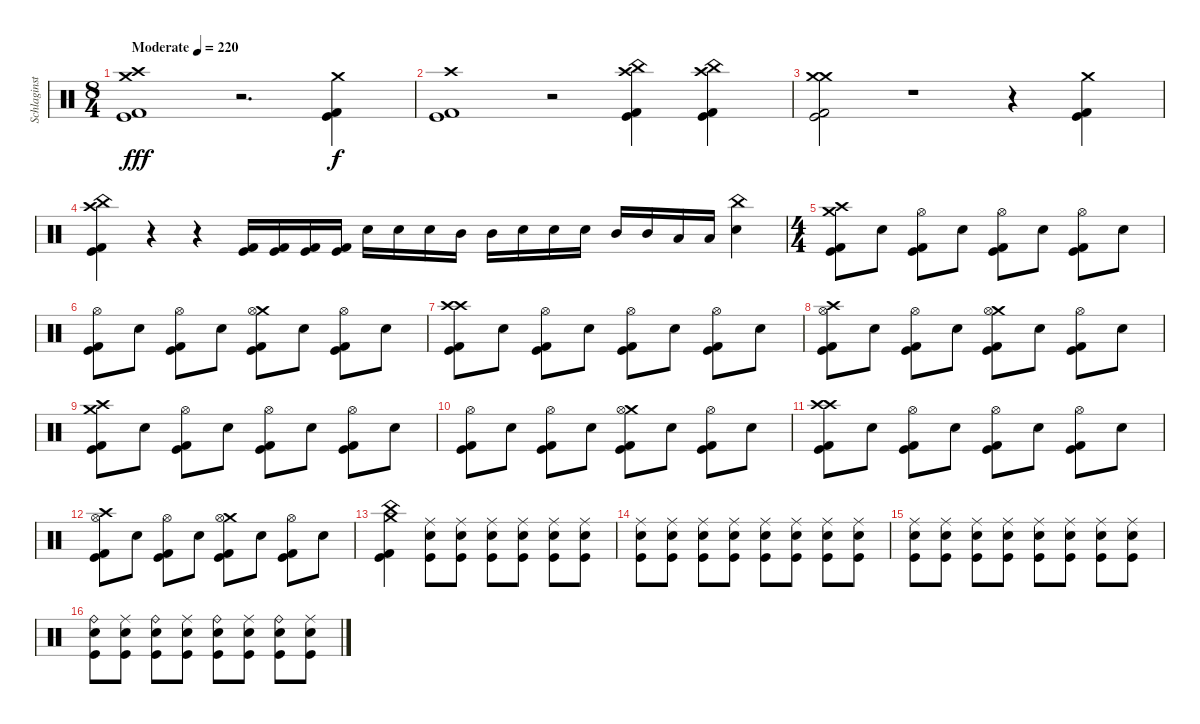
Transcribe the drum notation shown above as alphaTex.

\track ("Schlaginstrumente - Auswahl" "Schlaginst") {instrument percussion}
\staff {score}
\articulation defaults
\ts (8 4)
\tempo (220 "Moderate")
\clef neutral
\ks c
("Crash medium (hit)" "Crash high (hit)" "Kick (hit) 2" "Kick (hit)").1{dy fff} r.2{d} ("Crash medium (hit)" "Kick (hit) 2" "Kick (hit)").4{dy f} |
("Crash high (hit)" "Kick (hit) 2" "Kick (hit)").1 r.2 ("Crash high (hit)" "China (hit)" "Kick (hit) 2" "Kick (hit)").4 ("Crash high (hit)" "China (hit)" "Kick (hit) 2" "Kick (hit)").4 |
("Crash medium (hit)" "Crash medium (hit)" "Kick (hit) 2" "Kick (hit)").2 r.1 r.4 ("Crash medium (hit)" "Kick (hit) 2" "Kick (hit)").4 |
("Crash high (hit)" "China (hit)" "Kick (hit) 2" "Kick (hit)").4 r.4 r.4 ("Kick (hit) 2" "Kick (hit)").16 ("Kick (hit) 2" "Kick (hit)").16 ("Kick (hit) 2" "Kick (hit)").16 ("Kick (hit) 2" "Kick (hit)").16 "Electric Snare (hit)".16 "Electric Snare (hit)".16 "Electric Snare (hit)".16 "Mid Tom (hit)".16 "Mid Tom (hit)".16 "Electric Snare (hit)".16 "Electric Snare (hit)".16 "Electric Snare (hit)".16 "Mid Tom (hit)".16 "Mid Tom (hit)".16 "Low Tom (hit)".16 "Low Tom (hit)".16 ("China (hit)" "Electric Snare (hit)").4 |
\ts (4 4)
("Crash medium (hit)" "Crash high (hit)" "Kick (hit) 2" "Kick (hit)").8 "Electric Snare (hit)".8 ("Hi-Hat (open)" "Kick (hit) 2" "Kick (hit)").8 "Electric Snare (hit)".8 ("Hi-Hat (open)" "Kick (hit) 2" "Kick (hit)").8 "Electric Snare (hit)".8 ("Hi-Hat (open)" "Kick (hit) 2" "Kick (hit)").8 "Electric Snare (hit)".8 |
("Hi-Hat (open)" "Kick (hit) 2" "Kick (hit)").8 "Electric Snare (hit)".8 ("Hi-Hat (open)" "Kick (hit) 2" "Kick (hit)").8 "Electric Snare (hit)".8 ("Crash medium (hit)" "Hi-Hat (open)" "Kick (hit) 2" "Kick (hit)").8 "Electric Snare (hit)".8 ("Hi-Hat (open)" "Kick (hit) 2" "Kick (hit)").8 "Electric Snare (hit)".8 |
("Crash high (hit)" "Crash high (hit)" "Kick (hit) 2" "Kick (hit)").8 "Electric Snare (hit)".8 ("Hi-Hat (open)" "Kick (hit) 2" "Kick (hit)").8 "Electric Snare (hit)".8 ("Hi-Hat (open)" "Kick (hit) 2" "Kick (hit)").8 "Electric Snare (hit)".8 ("Hi-Hat (open)" "Kick (hit) 2" "Kick (hit)").8 "Electric Snare (hit)".8 |
("Crash high (hit)" "Hi-Hat (open)" "Kick (hit) 2" "Kick (hit)").8 "Electric Snare (hit)".8 ("Hi-Hat (open)" "Kick (hit) 2" "Kick (hit)").8 "Electric Snare (hit)".8 ("Crash medium (hit)" "Hi-Hat (open)" "Kick (hit) 2" "Kick (hit)").8 "Electric Snare (hit)".8 ("Hi-Hat (open)" "Kick (hit) 2" "Kick (hit)").8 "Electric Snare (hit)".8 |
("Crash medium (hit)" "Crash high (hit)" "Kick (hit) 2" "Kick (hit)").8 "Electric Snare (hit)".8 ("Hi-Hat (open)" "Kick (hit) 2" "Kick (hit)").8 "Electric Snare (hit)".8 ("Hi-Hat (open)" "Kick (hit) 2" "Kick (hit)").8 "Electric Snare (hit)".8 ("Hi-Hat (open)" "Kick (hit) 2" "Kick (hit)").8 "Electric Snare (hit)".8 |
("Hi-Hat (open)" "Kick (hit) 2" "Kick (hit)").8 "Electric Snare (hit)".8 ("Hi-Hat (open)" "Kick (hit) 2" "Kick (hit)").8 "Electric Snare (hit)".8 ("Crash medium (hit)" "Hi-Hat (open)" "Kick (hit) 2" "Kick (hit)").8 "Electric Snare (hit)".8 ("Hi-Hat (open)" "Kick (hit) 2" "Kick (hit)").8 "Electric Snare (hit)".8 |
("Crash high (hit)" "Crash high (hit)" "Kick (hit) 2" "Kick (hit)").8 "Electric Snare (hit)".8 ("Hi-Hat (open)" "Kick (hit) 2" "Kick (hit)").8 "Electric Snare (hit)".8 ("Hi-Hat (open)" "Kick (hit) 2" "Kick (hit)").8 "Electric Snare (hit)".8 ("Hi-Hat (open)" "Kick (hit) 2" "Kick (hit)").8 "Electric Snare (hit)".8 |
("Crash high (hit)" "Hi-Hat (open)" "Kick (hit) 2" "Kick (hit)").8 "Electric Snare (hit)".8 ("Hi-Hat (open)" "Kick (hit) 2" "Kick (hit)").8 "Electric Snare (hit)".8 ("Crash medium (hit)" "Hi-Hat (open)" "Kick (hit) 2" "Kick (hit)").8 "Electric Snare (hit)".8 ("Hi-Hat (open)" "Kick (hit) 2" "Kick (hit)").8 "Electric Snare (hit)".8 |
("Crash medium (hit)" "China (hit)" "Kick (hit) 2" "Kick (hit)").4 ("Ride (middle)" "Electric Snare (hit)" "Kick (hit)").8 ("Ride (middle)" "Electric Snare (hit)" "Kick (hit)").8 ("Ride (middle)" "Electric Snare (hit)" "Kick (hit)").8 ("Ride (middle)" "Electric Snare (hit)" "Kick (hit)").8 ("Ride (middle)" "Electric Snare (hit)" "Kick (hit)").8 ("Ride (middle)" "Electric Snare (hit)" "Kick (hit)").8 |
("Ride (middle)" "Electric Snare (hit)" "Kick (hit)").8 ("Ride (middle)" "Electric Snare (hit)" "Kick (hit)").8 ("Ride (middle)" "Electric Snare (hit)" "Kick (hit)").8 ("Ride (middle)" "Electric Snare (hit)" "Kick (hit)").8 ("Ride (middle)" "Electric Snare (hit)" "Kick (hit)").8 ("Ride (middle)" "Electric Snare (hit)" "Kick (hit)").8 ("Ride (middle)" "Electric Snare (hit)" "Kick (hit)").8 ("Ride (middle)" "Electric Snare (hit)" "Kick (hit)").8 |
("Ride (middle)" "Electric Snare (hit)" "Kick (hit)").8 ("Ride (middle)" "Electric Snare (hit)" "Kick (hit)").8 ("Ride (middle)" "Electric Snare (hit)" "Kick (hit)").8 ("Ride (middle)" "Electric Snare (hit)" "Kick (hit)").8 ("Ride (middle)" "Electric Snare (hit)" "Kick (hit)").8 ("Ride (middle)" "Electric Snare (hit)" "Kick (hit)").8 ("Ride (middle)" "Electric Snare (hit)" "Kick (hit)").8 ("Ride (middle)" "Electric Snare (hit)" "Kick (hit)").8 |
("Ride (bell)" "Electric Snare (hit)" "Kick (hit)").8 ("Ride (middle)" "Electric Snare (hit)" "Kick (hit)").8 ("Ride (bell)" "Electric Snare (hit)" "Kick (hit)").8 ("Ride (middle)" "Electric Snare (hit)" "Kick (hit)").8 ("Ride (bell)" "Electric Snare (hit)" "Kick (hit)").8 ("Ride (middle)" "Electric Snare (hit)" "Kick (hit)").8 ("Ride (bell)" "Electric Snare (hit)" "Kick (hit)").8 ("Ride (middle)" "Electric Snare (hit)" "Kick (hit)").8
